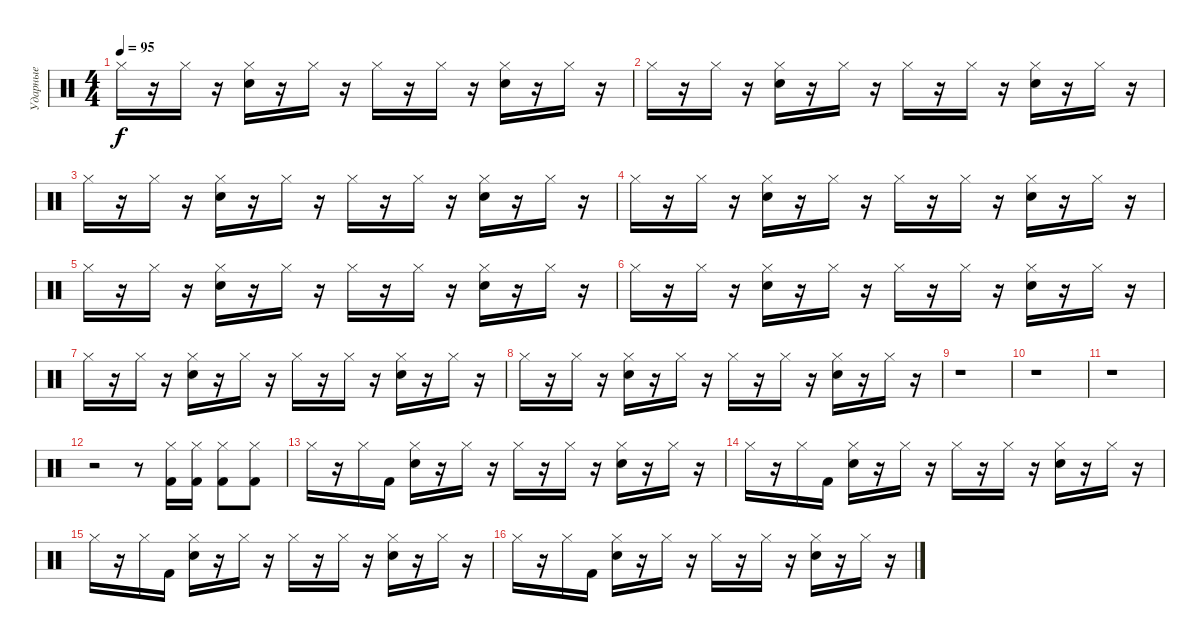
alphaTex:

\track ("Ударные" "Ударные") {instrument percussion}
\staff {score}
\articulation defaults
\ts (4 4)
\tempo 95
\clef neutral
\ks c "Hi-Hat (closed)".16{dy f}
r.16 "Hi-Hat (closed)".16 r.16 ("Hi-Hat (closed)" "Electric Snare (hit)").16 r.16 "Hi-Hat (closed)".16 r.16 "Hi-Hat (closed)".16 r.16 "Hi-Hat (closed)".16 r.16 ("Hi-Hat (closed)" "Electric Snare (hit)").16 r.16 "Hi-Hat (closed)".16 r.16 |
"Hi-Hat (closed)".16 r.16 "Hi-Hat (closed)".16 r.16 ("Hi-Hat (closed)" "Electric Snare (hit)").16 r.16 "Hi-Hat (closed)".16 r.16 "Hi-Hat (closed)".16 r.16 "Hi-Hat (closed)".16 r.16 ("Hi-Hat (closed)" "Electric Snare (hit)").16 r.16 "Hi-Hat (closed)".16 r.16 |
"Hi-Hat (closed)".16 r.16 "Hi-Hat (closed)".16 r.16 ("Hi-Hat (closed)" "Electric Snare (hit)").16 r.16 "Hi-Hat (closed)".16 r.16 "Hi-Hat (closed)".16 r.16 "Hi-Hat (closed)".16 r.16 ("Hi-Hat (closed)" "Electric Snare (hit)").16 r.16 "Hi-Hat (closed)".16 r.16 |
"Hi-Hat (closed)".16 r.16 "Hi-Hat (closed)".16 r.16 ("Hi-Hat (closed)" "Electric Snare (hit)").16 r.16 "Hi-Hat (closed)".16 r.16 "Hi-Hat (closed)".16 r.16 "Hi-Hat (closed)".16 r.16 ("Hi-Hat (closed)" "Electric Snare (hit)").16 r.16 "Hi-Hat (closed)".16 r.16 |
"Hi-Hat (closed)".16 r.16 "Hi-Hat (closed)".16 r.16 ("Hi-Hat (closed)" "Electric Snare (hit)").16 r.16 "Hi-Hat (closed)".16 r.16 "Hi-Hat (closed)".16 r.16 "Hi-Hat (closed)".16 r.16 ("Hi-Hat (closed)" "Electric Snare (hit)").16 r.16 "Hi-Hat (closed)".16 r.16 |
"Hi-Hat (closed)".16 r.16 "Hi-Hat (closed)".16 r.16 ("Hi-Hat (closed)" "Electric Snare (hit)").16 r.16 "Hi-Hat (closed)".16 r.16 "Hi-Hat (closed)".16 r.16 "Hi-Hat (closed)".16 r.16 ("Hi-Hat (closed)" "Electric Snare (hit)").16 r.16 "Hi-Hat (closed)".16 r.16 |
"Hi-Hat (closed)".16 r.16 "Hi-Hat (closed)".16 r.16 ("Hi-Hat (closed)" "Electric Snare (hit)").16 r.16 "Hi-Hat (closed)".16 r.16 "Hi-Hat (closed)".16 r.16 "Hi-Hat (closed)".16 r.16 ("Hi-Hat (closed)" "Electric Snare (hit)").16 r.16 "Hi-Hat (closed)".16 r.16 |
"Hi-Hat (closed)".16 r.16 "Hi-Hat (closed)".16 r.16 ("Hi-Hat (closed)" "Electric Snare (hit)").16 r.16 "Hi-Hat (closed)".16 r.16 "Hi-Hat (closed)".16 r.16 "Hi-Hat (closed)".16 r.16 ("Hi-Hat (closed)" "Electric Snare (hit)").16 r.16 "Hi-Hat (closed)".16 r.16 |
r.1 |
r.1 |
r.1 |
r.2 r.8 ("Kick (hit) 2" "Hi-Hat (closed)").16 ("Kick (hit) 2" "Hi-Hat (closed)").16 ("Kick (hit) 2" "Hi-Hat (closed)").8 ("Kick (hit) 2" "Hi-Hat (closed)").8 |
"Hi-Hat (closed)".16 r.16 "Hi-Hat (closed)".16 "Kick (hit) 2".16 ("Hi-Hat (closed)" "Electric Snare (hit)").16 r.16 "Hi-Hat (closed)".16 r.16 "Hi-Hat (closed)".16 r.16 "Hi-Hat (closed)".16 r.16 ("Hi-Hat (closed)" "Electric Snare (hit)").16 r.16 "Hi-Hat (closed)".16 r.16 |
"Hi-Hat (closed)".16 r.16 "Hi-Hat (closed)".16 "Kick (hit) 2".16 ("Hi-Hat (closed)" "Electric Snare (hit)").16 r.16 "Hi-Hat (closed)".16 r.16 "Hi-Hat (closed)".16 r.16 "Hi-Hat (closed)".16 r.16 ("Hi-Hat (closed)" "Electric Snare (hit)").16 r.16 "Hi-Hat (closed)".16 r.16 |
"Hi-Hat (closed)".16 r.16 "Hi-Hat (closed)".16 "Kick (hit) 2".16 ("Hi-Hat (closed)" "Electric Snare (hit)").16 r.16 "Hi-Hat (closed)".16 r.16 "Hi-Hat (closed)".16 r.16 "Hi-Hat (closed)".16 r.16 ("Hi-Hat (closed)" "Electric Snare (hit)").16 r.16 "Hi-Hat (closed)".16 r.16 |
"Hi-Hat (closed)".16 r.16 "Hi-Hat (closed)".16 "Kick (hit) 2".16 ("Hi-Hat (closed)" "Electric Snare (hit)").16 r.16 "Hi-Hat (closed)".16 r.16 "Hi-Hat (closed)".16 r.16 "Hi-Hat (closed)".16 r.16 ("Hi-Hat (closed)" "Electric Snare (hit)").16 r.16 "Hi-Hat (closed)".16 r.16
